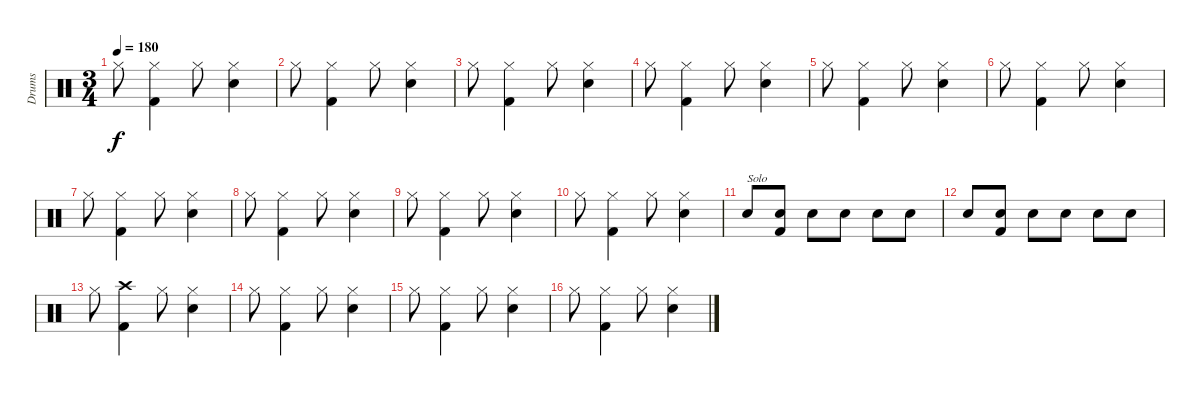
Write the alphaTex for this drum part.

\track ("Drums" "Drums") {instrument percussion}
\staff {score}
\articulation defaults
\ts (3 4)
\tempo 180
\clef neutral
\ks c "Hi-Hat (closed)".8{dy f}
("Hi-Hat (closed)" "Kick (hit) 2").4 "Hi-Hat (closed)".8 ("Hi-Hat (closed)" "Snare (hit) 2").4 |
"Hi-Hat (closed)".8 ("Hi-Hat (closed)" "Kick (hit) 2").4 "Hi-Hat (closed)".8 ("Hi-Hat (closed)" "Snare (hit) 2").4 |
"Hi-Hat (closed)".8 ("Hi-Hat (closed)" "Kick (hit) 2").4 "Hi-Hat (closed)".8 ("Hi-Hat (closed)" "Snare (hit) 2").4 |
"Hi-Hat (closed)".8 ("Hi-Hat (closed)" "Kick (hit) 2").4 "Hi-Hat (closed)".8 ("Hi-Hat (closed)" "Snare (hit) 2").4 |
"Hi-Hat (closed)".8 ("Hi-Hat (closed)" "Kick (hit) 2").4 "Hi-Hat (closed)".8 ("Hi-Hat (closed)" "Snare (hit) 2").4 |
"Hi-Hat (closed)".8 ("Hi-Hat (closed)" "Kick (hit) 2").4 "Hi-Hat (closed)".8 ("Hi-Hat (closed)" "Snare (hit) 2").4 |
"Hi-Hat (closed)".8 ("Hi-Hat (closed)" "Kick (hit) 2").4 "Hi-Hat (closed)".8 ("Hi-Hat (closed)" "Snare (hit) 2").4 |
"Hi-Hat (closed)".8 ("Hi-Hat (closed)" "Kick (hit) 2").4 "Hi-Hat (closed)".8 ("Hi-Hat (closed)" "Snare (hit) 2").4 |
"Hi-Hat (closed)".8 ("Hi-Hat (closed)" "Kick (hit) 2").4 "Hi-Hat (closed)".8 ("Hi-Hat (closed)" "Snare (hit) 2").4 |
"Hi-Hat (closed)".8 ("Hi-Hat (closed)" "Kick (hit) 2").4 "Hi-Hat (closed)".8 ("Hi-Hat (closed)" "Snare (hit) 2").4 |
"Snare (hit) 2".8{txt "Solo"} ("Snare (hit) 2" "Kick (hit) 2").8 "Snare (hit) 2".8 "Snare (hit) 2".8 "Snare (hit) 2".8 "Snare (hit) 2".8 |
"Snare (hit) 2".8 ("Snare (hit) 2" "Kick (hit) 2").8 "Snare (hit) 2".8 "Snare (hit) 2".8 "Snare (hit) 2".8 "Snare (hit) 2".8 |
"Hi-Hat (closed)".8 ("Crash high (hit)" "Kick (hit) 2").4 "Hi-Hat (closed)".8 ("Hi-Hat (closed)" "Snare (hit) 2").4 |
"Hi-Hat (closed)".8 ("Hi-Hat (closed)" "Kick (hit) 2").4 "Hi-Hat (closed)".8 ("Hi-Hat (closed)" "Snare (hit) 2").4 |
"Hi-Hat (closed)".8 ("Hi-Hat (closed)" "Kick (hit) 2").4 "Hi-Hat (closed)".8 ("Hi-Hat (closed)" "Snare (hit) 2").4 |
"Hi-Hat (closed)".8 ("Hi-Hat (closed)" "Kick (hit) 2").4 "Hi-Hat (closed)".8 ("Hi-Hat (closed)" "Snare (hit) 2").4
